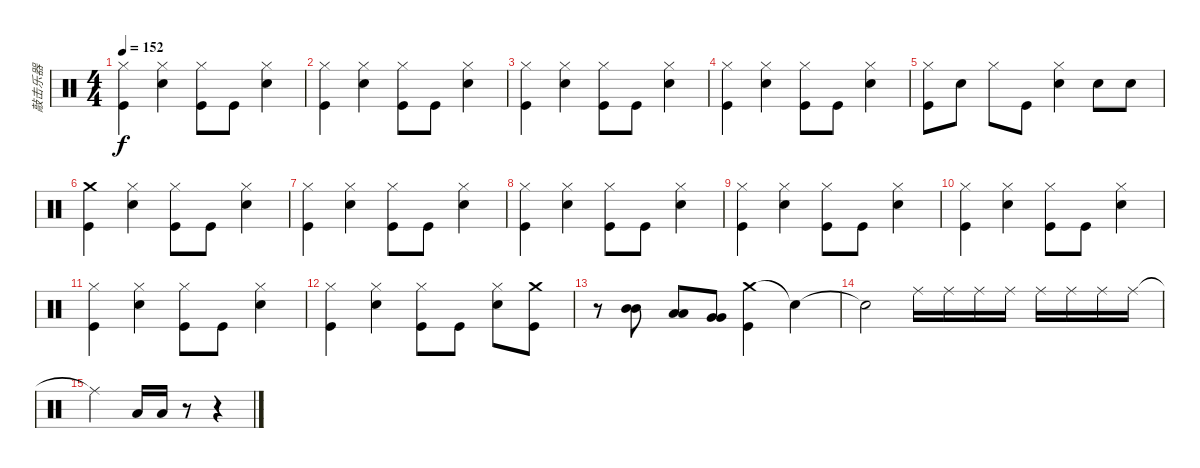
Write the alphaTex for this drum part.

\track ("敲击乐器" "敲击乐器") {instrument percussion}
\staff {score}
\articulation defaults
\ts (4 4)
\tempo 152
\clef neutral
\ks c
("Hi-Hat (closed)" "Kick (hit)").4{dy f} ("Hi-Hat (closed)" "Electric Snare (hit)").4 ("Hi-Hat (closed)" "Kick (hit)").8 "Kick (hit)".8 ("Hi-Hat (closed)" "Electric Snare (hit)").4 |
("Hi-Hat (closed)" "Kick (hit)").4 ("Hi-Hat (closed)" "Electric Snare (hit)").4 ("Hi-Hat (closed)" "Kick (hit)").8 "Kick (hit)".8 ("Hi-Hat (closed)" "Electric Snare (hit)").4 |
("Hi-Hat (closed)" "Kick (hit)").4 ("Hi-Hat (closed)" "Electric Snare (hit)").4 ("Hi-Hat (closed)" "Kick (hit)").8 "Kick (hit)".8 ("Hi-Hat (closed)" "Electric Snare (hit)").4 |
("Hi-Hat (closed)" "Kick (hit)").4 ("Hi-Hat (closed)" "Electric Snare (hit)").4 ("Hi-Hat (closed)" "Kick (hit)").8 "Kick (hit)".8 ("Hi-Hat (closed)" "Electric Snare (hit)").4 |
("Hi-Hat (closed)" "Kick (hit)").8 "Electric Snare (hit)".8 "Hi-Hat (closed)".8 "Kick (hit)".8 ("Hi-Hat (closed)" "Electric Snare (hit)").4 "Electric Snare (hit)".8 "Electric Snare (hit)".8 |
("Crash medium (hit)" "Kick (hit)").4 ("Hi-Hat (closed)" "Electric Snare (hit)").4 ("Hi-Hat (closed)" "Kick (hit)").8 "Kick (hit)".8 ("Hi-Hat (closed)" "Electric Snare (hit)").4 |
("Hi-Hat (closed)" "Kick (hit)").4 ("Hi-Hat (closed)" "Electric Snare (hit)").4 ("Hi-Hat (closed)" "Kick (hit)").8 "Kick (hit)".8 ("Hi-Hat (closed)" "Electric Snare (hit)").4 |
("Hi-Hat (closed)" "Kick (hit)").4 ("Hi-Hat (closed)" "Electric Snare (hit)").4 ("Hi-Hat (closed)" "Kick (hit)").8 "Kick (hit)".8 ("Hi-Hat (closed)" "Electric Snare (hit)").4 |
("Hi-Hat (closed)" "Kick (hit)").4 ("Hi-Hat (closed)" "Electric Snare (hit)").4 ("Hi-Hat (closed)" "Kick (hit)").8 "Kick (hit)".8 ("Hi-Hat (closed)" "Electric Snare (hit)").4 |
("Hi-Hat (closed)" "Kick (hit)").4 ("Hi-Hat (closed)" "Electric Snare (hit)").4 ("Hi-Hat (closed)" "Kick (hit)").8 "Kick (hit)".8 ("Hi-Hat (closed)" "Electric Snare (hit)").4 |
("Hi-Hat (closed)" "Kick (hit)").4 ("Hi-Hat (closed)" "Electric Snare (hit)").4 ("Hi-Hat (closed)" "Kick (hit)").8 "Kick (hit)".8 ("Hi-Hat (closed)" "Electric Snare (hit)").4 |
("Hi-Hat (closed)" "Kick (hit)").4 ("Hi-Hat (closed)" "Electric Snare (hit)").4 ("Hi-Hat (closed)" "Kick (hit)").8 "Kick (hit)".8 ("Hi-Hat (closed)" "Electric Snare (hit)").8 ("Crash medium (hit)" "Kick (hit)").8 |
r.8 ("Mid Tom (hit)" "Mid Tom (hit)").8 ("Low Tom (hit)" "Low Tom (hit)").8 ("Very Low Tom (hit)" "Very Low Tom (hit)").8 ("Crash medium (hit)" "Kick (hit)").4 "Snare (hit)"{t}.4 |
"Snare (hit)"{t}.2 "Ride (middle)".16 "Ride (middle)".16 "Ride (middle)".16 "Ride (middle)".16 "Ride (middle)".16 "Ride (middle)".16 "Ride (middle)".16 "Ride (middle)".16 |
"Ride (middle)"{t}.2 "Low Floor Tom (hit)".16 "Low Floor Tom (hit)".16 r.8 r.4
